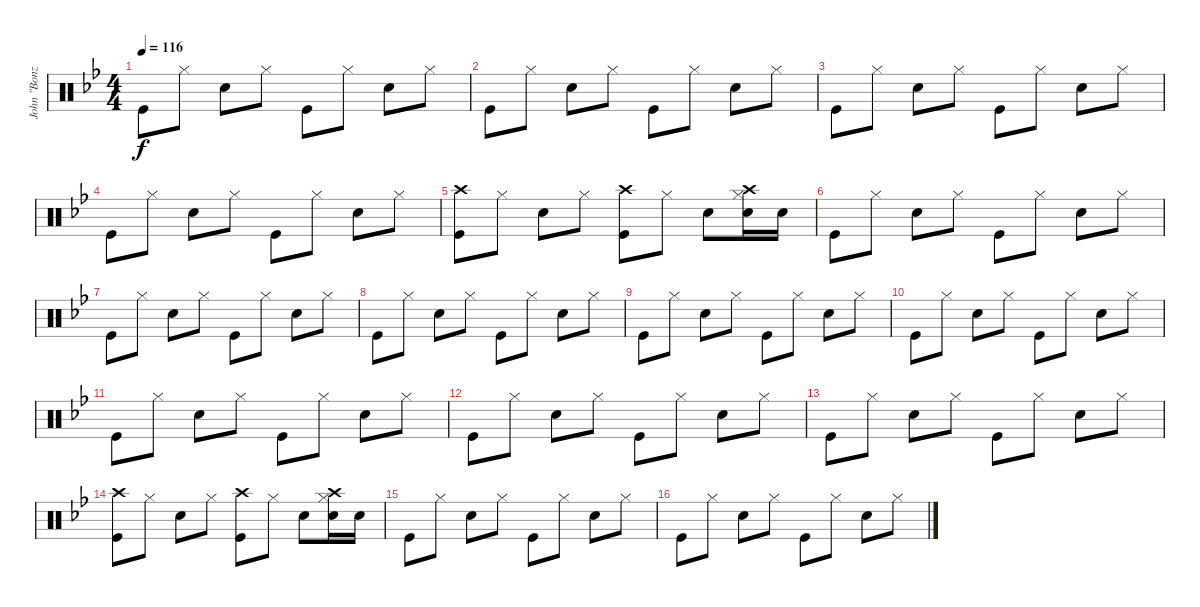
\track ("John \"Bonzo\" Bonham" "John \"Bonz") {instrument percussion}
\staff {score}
\articulation defaults
\ts (4 4)
\tempo 116
\clef neutral
\ks bb "Kick (hit)".8{dy f} "Hi-Hat (closed)".8 "Snare (hit) 2".8 "Hi-Hat (closed)".8 "Kick (hit)".8 "Hi-Hat (closed)".8 "Snare (hit) 2".8 "Hi-Hat (closed)".8
|
"Kick (hit)".8 "Hi-Hat (closed)".8 "Snare (hit) 2".8 "Hi-Hat (closed)".8 "Kick (hit)".8 "Hi-Hat (closed)".8 "Snare (hit) 2".8 "Hi-Hat (closed)".8 |
"Kick (hit)".8 "Hi-Hat (closed)".8 "Snare (hit) 2".8 "Hi-Hat (closed)".8 "Kick (hit)".8 "Hi-Hat (closed)".8 "Snare (hit) 2".8 "Hi-Hat (closed)".8 |
"Kick (hit)".8 "Hi-Hat (closed)".8 "Snare (hit) 2".8 "Hi-Hat (closed)".8 "Kick (hit)".8 "Hi-Hat (closed)".8 "Snare (hit) 2".8 "Hi-Hat (closed)".8 |
("Kick (hit)" "Crash high (hit)").8 "Hi-Hat (closed)".8 "Snare (hit) 2".8 "Hi-Hat (closed)".8 ("Kick (hit)" "Crash high (hit)").8 "Hi-Hat (closed)".8 "Snare (hit) 2".8 ("Snare (hit) 2" "Hi-Hat (closed)" "Crash high (hit)").16 "Snare (hit) 2".16 |
"Kick (hit)".8 "Hi-Hat (closed)".8 "Snare (hit) 2".8 "Hi-Hat (closed)".8 "Kick (hit)".8 "Hi-Hat (closed)".8 "Snare (hit) 2".8 "Hi-Hat (closed)".8 |
"Kick (hit)".8 "Hi-Hat (closed)".8 "Snare (hit) 2".8 "Hi-Hat (closed)".8 "Kick (hit)".8 "Hi-Hat (closed)".8 "Snare (hit) 2".8 "Hi-Hat (closed)".8 |
"Kick (hit)".8 "Hi-Hat (closed)".8 "Snare (hit) 2".8 "Hi-Hat (closed)".8 "Kick (hit)".8 "Hi-Hat (closed)".8 "Snare (hit) 2".8 "Hi-Hat (closed)".8 |
"Kick (hit)".8 "Hi-Hat (closed)".8 "Snare (hit) 2".8 "Hi-Hat (closed)".8 "Kick (hit)".8 "Hi-Hat (closed)".8 "Snare (hit) 2".8 "Hi-Hat (closed)".8 |
"Kick (hit)".8 "Hi-Hat (closed)".8 "Snare (hit) 2".8 "Hi-Hat (closed)".8 "Kick (hit)".8 "Hi-Hat (closed)".8 "Snare (hit) 2".8 "Hi-Hat (closed)".8 |
"Kick (hit)".8 "Hi-Hat (closed)".8 "Snare (hit) 2".8 "Hi-Hat (closed)".8 "Kick (hit)".8 "Hi-Hat (closed)".8 "Snare (hit) 2".8 "Hi-Hat (closed)".8 |
"Kick (hit)".8 "Hi-Hat (closed)".8 "Snare (hit) 2".8 "Hi-Hat (closed)".8 "Kick (hit)".8 "Hi-Hat (closed)".8 "Snare (hit) 2".8 "Hi-Hat (closed)".8 |
"Kick (hit)".8 "Hi-Hat (closed)".8 "Snare (hit) 2".8 "Hi-Hat (closed)".8 "Kick (hit)".8 "Hi-Hat (closed)".8 "Snare (hit) 2".8 "Hi-Hat (closed)".8 |
("Kick (hit)" "Crash high (hit)").8 "Hi-Hat (closed)".8 "Snare (hit) 2".8 "Hi-Hat (closed)".8 ("Kick (hit)" "Crash high (hit)").8 "Hi-Hat (closed)".8 "Snare (hit) 2".8 ("Snare (hit) 2" "Hi-Hat (closed)" "Crash high (hit)").16 "Snare (hit) 2".16 |
"Kick (hit)".8 "Hi-Hat (closed)".8 "Snare (hit) 2".8 "Hi-Hat (closed)".8 "Kick (hit)".8 "Hi-Hat (closed)".8 "Snare (hit) 2".8 "Hi-Hat (closed)".8 |
"Kick (hit)".8 "Hi-Hat (closed)".8 "Snare (hit) 2".8 "Hi-Hat (closed)".8 "Kick (hit)".8 "Hi-Hat (closed)".8 "Snare (hit) 2".8 "Hi-Hat (closed)".8
